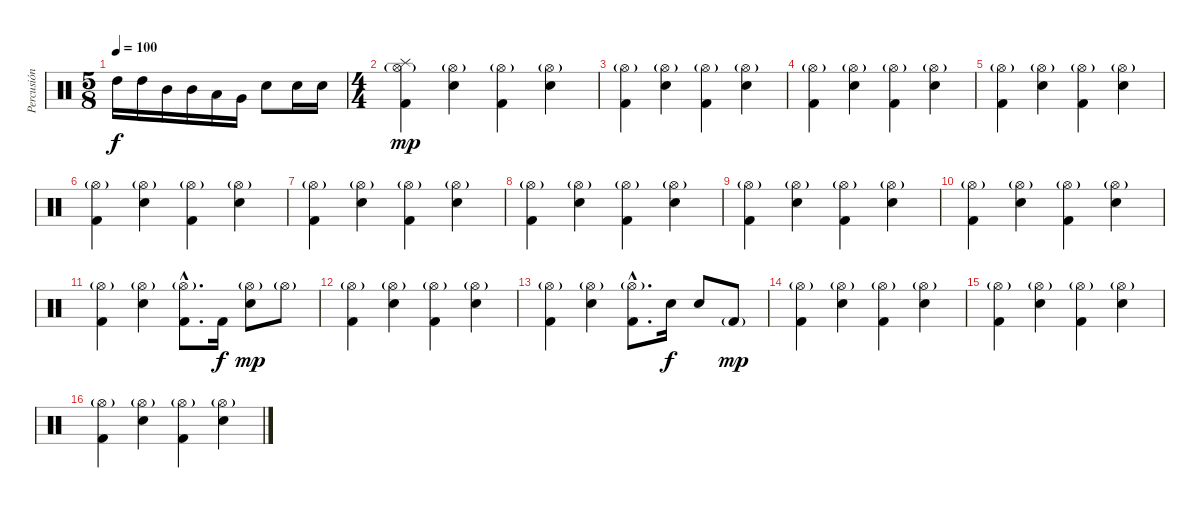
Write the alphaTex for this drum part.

\track ("Percusión" "Percusión") {instrument percussion}
\staff {score}
\articulation defaults
\ts (5 8)
\tempo 100
\clef neutral
\ks c "High Tom (hit)".16{dy f} "High Tom (hit)".16 "Mid Tom (hit)".16 "Mid Tom (hit)".16 "Low Tom (hit)".16 "Very Low Tom (hit)".16 "Electric Snare (hit)".8 "Electric Snare (hit)".16 "Electric Snare (hit)".16
|
\ts (4 4)
("Kick (hit) 2" "Splash (hit)" "Hi-Hat (open)"{g}).4{dy mp} ("Electric Snare (hit)" "Hi-Hat (open)"{g}).4 ("Kick (hit) 2" "Hi-Hat (open)"{g}).4 ("Electric Snare (hit)" "Hi-Hat (open)"{g}).4 |
("Kick (hit) 2" "Hi-Hat (open)"{g}).4 ("Electric Snare (hit)" "Hi-Hat (open)"{g}).4 ("Kick (hit) 2" "Hi-Hat (open)"{g}).4 ("Electric Snare (hit)" "Hi-Hat (open)"{g}).4 |
("Kick (hit) 2" "Hi-Hat (open)"{g}).4 ("Electric Snare (hit)" "Hi-Hat (open)"{g}).4 ("Kick (hit) 2" "Hi-Hat (open)"{g}).4 ("Electric Snare (hit)" "Hi-Hat (open)"{g}).4 |
("Kick (hit) 2" "Hi-Hat (open)"{g}).4 ("Electric Snare (hit)" "Hi-Hat (open)"{g}).4 ("Kick (hit) 2" "Hi-Hat (open)"{g}).4 ("Electric Snare (hit)" "Hi-Hat (open)"{g}).4 |
("Kick (hit) 2" "Hi-Hat (open)"{g}).4 ("Electric Snare (hit)" "Hi-Hat (open)"{g}).4 ("Kick (hit) 2" "Hi-Hat (open)"{g}).4 ("Electric Snare (hit)" "Hi-Hat (open)"{g}).4 |
("Kick (hit) 2" "Hi-Hat (open)"{g}).4 ("Electric Snare (hit)" "Hi-Hat (open)"{g}).4 ("Kick (hit) 2" "Hi-Hat (open)"{g}).4 ("Electric Snare (hit)" "Hi-Hat (open)"{g}).4 |
("Kick (hit) 2" "Hi-Hat (open)"{g}).4 ("Electric Snare (hit)" "Hi-Hat (open)"{g}).4 ("Kick (hit) 2" "Hi-Hat (open)"{g}).4 ("Electric Snare (hit)" "Hi-Hat (open)"{g}).4 |
("Kick (hit) 2" "Hi-Hat (open)"{g}).4 ("Electric Snare (hit)" "Hi-Hat (open)"{g}).4 ("Kick (hit) 2" "Hi-Hat (open)"{g}).4 ("Electric Snare (hit)" "Hi-Hat (open)"{g}).4 |
("Kick (hit) 2" "Hi-Hat (open)"{g}).4 ("Electric Snare (hit)" "Hi-Hat (open)"{g}).4 ("Kick (hit) 2" "Hi-Hat (open)"{g}).4 ("Electric Snare (hit)" "Hi-Hat (open)"{g}).4 |
("Kick (hit) 2" "Hi-Hat (open)"{g}).4 ("Electric Snare (hit)" "Hi-Hat (open)"{g}).4 ("Kick (hit) 2"{hac} "Hi-Hat (open)"{g hac}).8{d} "Kick (hit) 2".16{dy f} ("Electric Snare (hit)" "Hi-Hat (open)"{g}).8{dy mp} "Hi-Hat (open)"{g}.8 |
("Kick (hit) 2" "Hi-Hat (open)"{g}).4 ("Electric Snare (hit)" "Hi-Hat (open)"{g}).4 ("Kick (hit) 2" "Hi-Hat (open)"{g}).4 ("Electric Snare (hit)" "Hi-Hat (open)"{g}).4 |
("Kick (hit) 2" "Hi-Hat (open)"{g}).4 ("Electric Snare (hit)" "Hi-Hat (open)"{g}).4 ("Kick (hit) 2"{hac} "Hi-Hat (open)"{g hac}).8{d} "Electric Snare (hit)".16{dy f} "Electric Snare (hit)".8 "Kick (hit) 2"{g}.8{dy mp} |
("Kick (hit) 2" "Hi-Hat (open)"{g}).4 ("Electric Snare (hit)" "Hi-Hat (open)"{g}).4 ("Kick (hit) 2" "Hi-Hat (open)"{g}).4 ("Electric Snare (hit)" "Hi-Hat (open)"{g}).4 |
("Kick (hit) 2" "Hi-Hat (open)"{g}).4 ("Electric Snare (hit)" "Hi-Hat (open)"{g}).4 ("Kick (hit) 2" "Hi-Hat (open)"{g}).4 ("Electric Snare (hit)" "Hi-Hat (open)"{g}).4 |
("Kick (hit) 2" "Hi-Hat (open)"{g}).4 ("Electric Snare (hit)" "Hi-Hat (open)"{g}).4 ("Kick (hit) 2" "Hi-Hat (open)"{g}).4 ("Electric Snare (hit)" "Hi-Hat (open)"{g}).4
